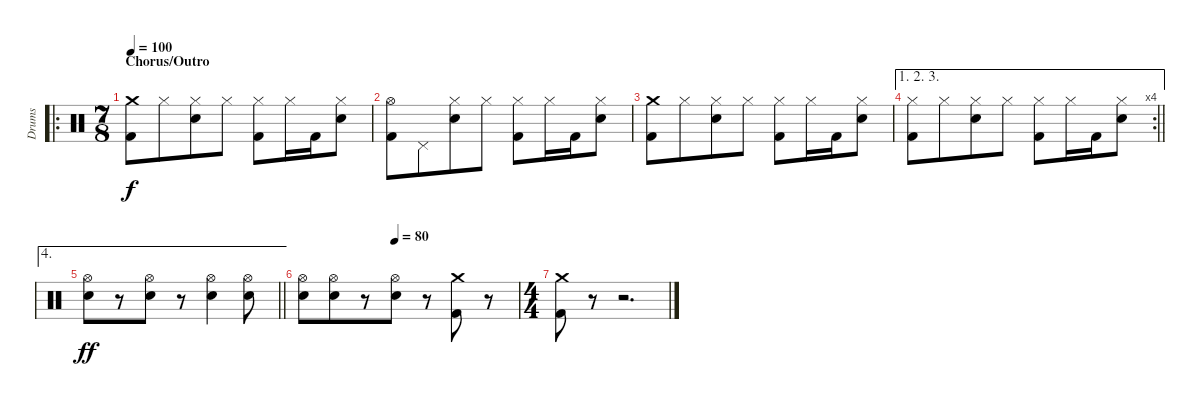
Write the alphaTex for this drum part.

\track ("Drums" "Drums") {instrument percussion}
\staff {score}
\articulation defaults
\ro
\ts (7 8)
\section ("" "Chorus/Outro")
\tempo 100
\clef neutral
\ks c
("Crash medium (hit)" "Kick (hit) 2").8{dy f} "Hi-Hat (closed)".8 ("Hi-Hat (closed)" "Electric Snare (hit)").8 "Hi-Hat (closed)".8 ("Hi-Hat (closed)" "Kick (hit) 2").8 "Hi-Hat (closed)".16 "Kick (hit) 2".16 ("Hi-Hat (closed)" "Electric Snare (hit)").8 |
("Hi-Hat (open)" "Kick (hit) 2").8 "Pedal Hi-Hat (hit)".8 ("Hi-Hat (closed)" "Electric Snare (hit)").8 "Hi-Hat (closed)".8 ("Hi-Hat (closed)" "Kick (hit) 2").8 "Hi-Hat (closed)".16 "Kick (hit) 2".16 ("Hi-Hat (closed)" "Electric Snare (hit)").8 |
("Crash medium (hit)" "Kick (hit) 2").8 "Hi-Hat (closed)".8 ("Hi-Hat (closed)" "Electric Snare (hit)").8 "Hi-Hat (closed)".8 ("Hi-Hat (closed)" "Kick (hit) 2").8 "Hi-Hat (closed)".16 "Kick (hit) 2".16 ("Hi-Hat (closed)" "Electric Snare (hit)").8 |
\ae (1 2 3)
\rc 4
\barLineRight lightlight
("Hi-Hat (closed)" "Kick (hit) 2").8 "Hi-Hat (closed)".8 ("Hi-Hat (closed)" "Electric Snare (hit)").8 "Hi-Hat (closed)".8 ("Hi-Hat (closed)" "Kick (hit) 2").8 "Hi-Hat (closed)".16 "Kick (hit) 2".16 ("Hi-Hat (closed)" "Electric Snare (hit)").8 |
\ae 4
\barLineRight lightlight
("Hi-Hat (open)" "Electric Snare (hit)").8{dy ff} r.8 ("Hi-Hat (open)" "Electric Snare (hit)").8 r.8 ("Hi-Hat (open)" "Electric Snare (hit)").4 ("Hi-Hat (open)" "Electric Snare (hit)").8 |
\tempo (80 0.42857142857142855)
("Hi-Hat (open)" "Electric Snare (hit)").8 ("Hi-Hat (open)" "Electric Snare (hit)").8 r.8 ("Hi-Hat (open)" "Electric Snare (hit)").8 r.8 ("Crash medium (hit)" "Kick (hit) 2").8 r.8 |
\ts (4 4)
("Crash medium (hit)" "Kick (hit) 2").8 r.8{volume 0} r.2{d}
